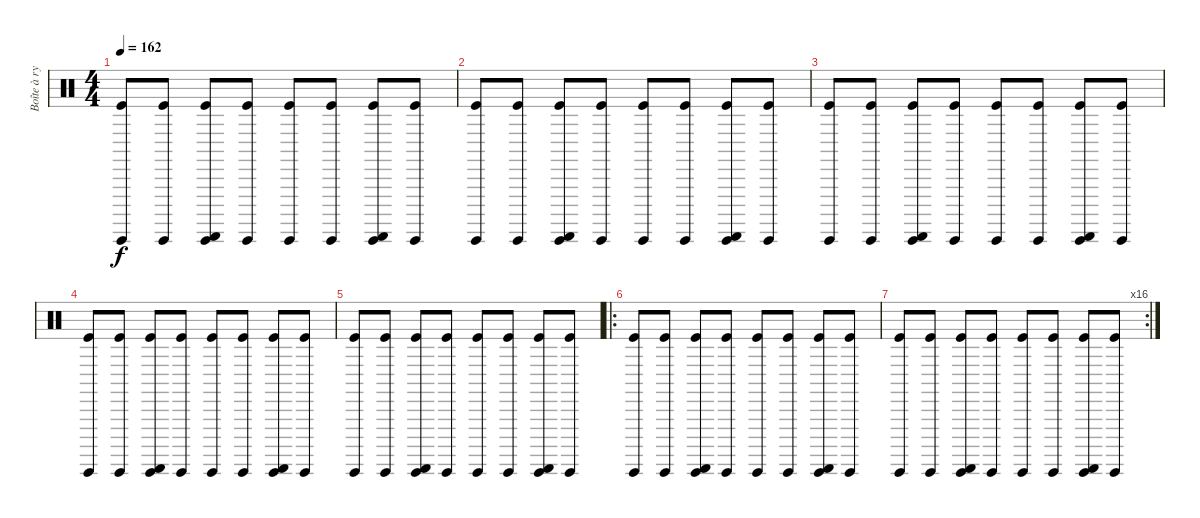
\track ("Boîte à rythme" "Boîte à ry") {instrument percussion}
\staff {score}
\articulation defaults
\ts (4 4)
\tempo 162
\clef neutral
\ks c
("Kick (hit)" "Guiro (hit)").8{dy f} ("Kick (hit)" "Guiro (hit)").8 ("Kick (hit)" "Guiro (hit)" "Guiro (scrap-return)").8 ("Kick (hit)" "Guiro (hit)").8 ("Kick (hit)" "Guiro (hit)").8 ("Kick (hit)" "Guiro (hit)").8 ("Kick (hit)" "Guiro (hit)" "Guiro (scrap-return)").8 ("Kick (hit)" "Guiro (hit)").8 |
("Kick (hit)" "Guiro (hit)").8 ("Kick (hit)" "Guiro (hit)").8 ("Kick (hit)" "Guiro (hit)" "Guiro (scrap-return)").8 ("Kick (hit)" "Guiro (hit)").8 ("Kick (hit)" "Guiro (hit)").8 ("Kick (hit)" "Guiro (hit)").8 ("Kick (hit)" "Guiro (hit)" "Guiro (scrap-return)").8 ("Kick (hit)" "Guiro (hit)").8 |
("Kick (hit)" "Guiro (hit)").8 ("Kick (hit)" "Guiro (hit)").8 ("Kick (hit)" "Guiro (hit)" "Guiro (scrap-return)").8 ("Kick (hit)" "Guiro (hit)").8 ("Kick (hit)" "Guiro (hit)").8 ("Kick (hit)" "Guiro (hit)").8 ("Kick (hit)" "Guiro (hit)" "Guiro (scrap-return)").8 ("Kick (hit)" "Guiro (hit)").8 |
("Kick (hit)" "Guiro (hit)").8 ("Kick (hit)" "Guiro (hit)").8 ("Kick (hit)" "Guiro (hit)" "Guiro (scrap-return)").8 ("Kick (hit)" "Guiro (hit)").8 ("Kick (hit)" "Guiro (hit)").8 ("Kick (hit)" "Guiro (hit)").8 ("Kick (hit)" "Guiro (hit)" "Guiro (scrap-return)").8 ("Kick (hit)" "Guiro (hit)").8 |
("Kick (hit)" "Guiro (hit)").8 ("Kick (hit)" "Guiro (hit)").8 ("Kick (hit)" "Guiro (hit)" "Guiro (scrap-return)").8 ("Kick (hit)" "Guiro (hit)").8 ("Kick (hit)" "Guiro (hit)").8 ("Kick (hit)" "Guiro (hit)").8 ("Kick (hit)" "Guiro (hit)" "Guiro (scrap-return)").8 ("Kick (hit)" "Guiro (hit)").8 |
\ro
("Kick (hit)" "Guiro (hit)").8 ("Kick (hit)" "Guiro (hit)").8 ("Kick (hit)" "Guiro (hit)" "Guiro (scrap-return)").8 ("Kick (hit)" "Guiro (hit)").8 ("Kick (hit)" "Guiro (hit)").8 ("Kick (hit)" "Guiro (hit)").8 ("Kick (hit)" "Guiro (hit)" "Guiro (scrap-return)").8 ("Kick (hit)" "Guiro (hit)").8 |
\rc 16
("Kick (hit)" "Guiro (hit)").8 ("Kick (hit)" "Guiro (hit)").8 ("Kick (hit)" "Guiro (hit)" "Guiro (scrap-return)").8 ("Kick (hit)" "Guiro (hit)").8 ("Kick (hit)" "Guiro (hit)").8 ("Kick (hit)" "Guiro (hit)").8 ("Kick (hit)" "Guiro (hit)" "Guiro (scrap-return)").8 ("Kick (hit)" "Guiro (hit)").8
